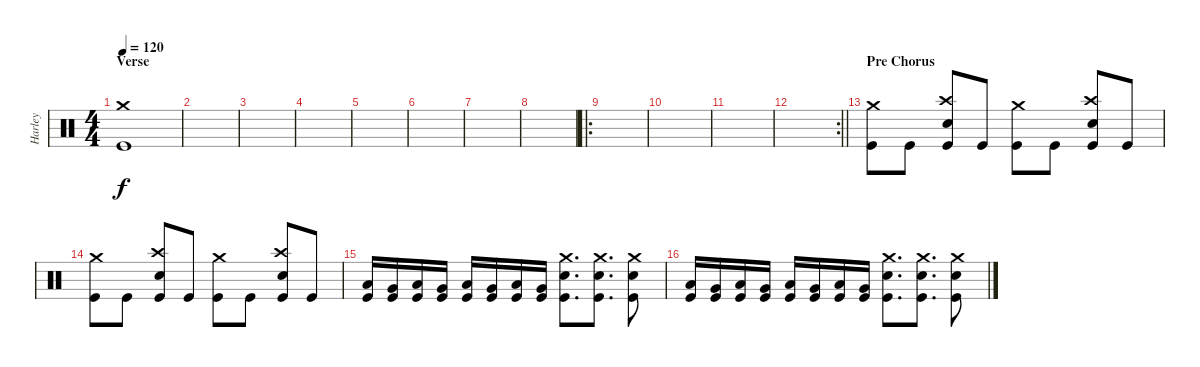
\track ("Harley" "Harley") {instrument percussion}
\staff {score}
\articulation defaults
\ts (4 4)
\section ("" "Verse")
\tempo 120
\clef neutral
\ks c
("Crash medium (hit)" "Kick (hit)").1{dy f} |
|
|
|
|
|
|
|
\ro
|
|
|
\rc 2
\barLineRight lightlight
|
\section ("" "Pre Chorus")
("Crash medium (hit)" "Kick (hit)").8 "Kick (hit)".8 ("Crash high (hit)" "Snare (hit) 2" "Kick (hit)").8 "Kick (hit)".8 ("Crash medium (hit)" "Kick (hit)").8 "Kick (hit)".8 ("Crash high (hit)" "Snare (hit) 2" "Kick (hit)").8 "Kick (hit)".8 |
("Crash medium (hit)" "Kick (hit)").8 "Kick (hit)".8 ("Crash high (hit)" "Snare (hit) 2" "Kick (hit)").8 "Kick (hit)".8 ("Crash medium (hit)" "Kick (hit)").8 "Kick (hit)".8 ("Crash high (hit)" "Snare (hit) 2" "Kick (hit)").8 "Kick (hit)".8 |
("Low Floor Tom (hit)" "Kick (hit)").16 ("Very Low Tom (hit)" "Kick (hit)").16 ("Low Floor Tom (hit)" "Kick (hit)").16 ("Very Low Tom (hit)" "Kick (hit)").16 ("Low Floor Tom (hit)" "Kick (hit)").16 ("Very Low Tom (hit)" "Kick (hit)").16 ("Low Floor Tom (hit)" "Kick (hit)").16 ("Very Low Tom (hit)" "Kick (hit)").16 ("Crash medium (hit)" "Snare (hit) 2" "Kick (hit)").8{d} ("Crash medium (hit)" "Snare (hit) 2" "Kick (hit)").8{d} ("Crash medium (hit)" "Snare (hit) 2" "Kick (hit)").8 |
("Low Floor Tom (hit)" "Kick (hit)").16 ("Very Low Tom (hit)" "Kick (hit)").16 ("Low Floor Tom (hit)" "Kick (hit)").16 ("Very Low Tom (hit)" "Kick (hit)").16 ("Low Floor Tom (hit)" "Kick (hit)").16 ("Very Low Tom (hit)" "Kick (hit)").16 ("Low Floor Tom (hit)" "Kick (hit)").16 ("Very Low Tom (hit)" "Kick (hit)").16 ("Crash medium (hit)" "Snare (hit) 2" "Kick (hit)").8{d} ("Crash medium (hit)" "Snare (hit) 2" "Kick (hit)").8{d} ("Crash medium (hit)" "Snare (hit) 2" "Kick (hit)").8
